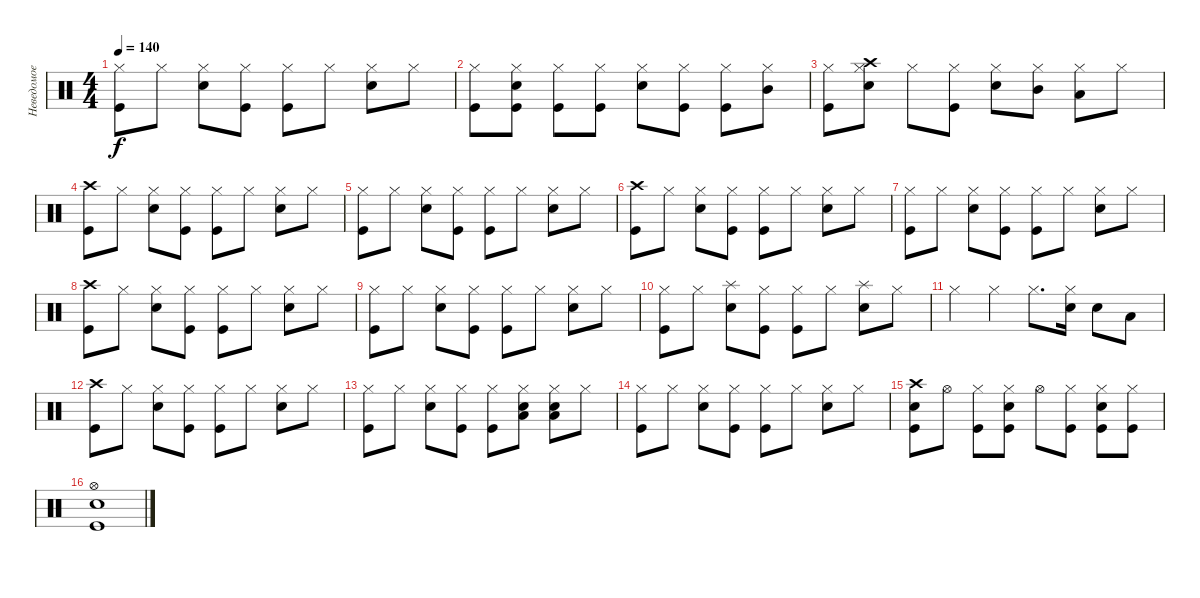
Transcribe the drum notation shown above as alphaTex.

\track ("Неведомое существо" "Неведомое ") {instrument percussion}
\staff {score}
\articulation defaults
\ts (4 4)
\tempo 140
\clef neutral
\ks c
("Hi-Hat (closed)" "Kick (hit)").8{dy f} "Hi-Hat (closed)".8 ("Hi-Hat (closed)" "Snare (hit) 2").8 ("Hi-Hat (closed)" "Kick (hit)").8 ("Hi-Hat (closed)" "Kick (hit)").8 "Hi-Hat (closed)".8 ("Hi-Hat (closed)" "Snare (hit) 2").8 "Hi-Hat (closed)".8 |
("Hi-Hat (closed)" "Kick (hit)").8 ("Hi-Hat (closed)" "Snare (hit) 2" "Kick (hit)").8 ("Hi-Hat (closed)" "Kick (hit)").8 ("Hi-Hat (closed)" "Kick (hit)").8 ("Hi-Hat (closed)" "Snare (hit) 2").8 ("Hi-Hat (closed)" "Kick (hit)").8 ("Hi-Hat (closed)" "Kick (hit)").8 ("Hi-Hat (closed)" "Mid Tom (hit)").8 |
("Hi-Hat (closed)" "Kick (hit)").8 ("Hi-Hat (closed)" "Crash high (hit)" "Snare (hit) 2").8 "Hi-Hat (closed)".8 ("Hi-Hat (closed)" "Kick (hit)").8 ("Hi-Hat (closed)" "Snare (hit) 2").8 ("Hi-Hat (closed)" "Mid Tom (hit)").8 ("Hi-Hat (closed)" "Low Tom (hit)").8 "Hi-Hat (closed)".8 |
("Crash high (hit)" "Kick (hit)").8 "Hi-Hat (closed)".8 ("Hi-Hat (closed)" "Snare (hit) 2").8 ("Hi-Hat (closed)" "Kick (hit)").8 ("Hi-Hat (closed)" "Kick (hit)").8 "Hi-Hat (closed)".8 ("Hi-Hat (closed)" "Snare (hit) 2").8 "Hi-Hat (closed)".8 |
("Hi-Hat (closed)" "Kick (hit)").8 "Hi-Hat (closed)".8 ("Hi-Hat (closed)" "Snare (hit) 2").8 ("Hi-Hat (closed)" "Kick (hit)").8 ("Hi-Hat (closed)" "Kick (hit)").8 "Hi-Hat (closed)".8 ("Hi-Hat (closed)" "Snare (hit) 2").8 "Hi-Hat (closed)".8 |
("Crash high (hit)" "Kick (hit)").8 "Hi-Hat (closed)".8 ("Hi-Hat (closed)" "Snare (hit) 2").8 ("Hi-Hat (closed)" "Kick (hit)").8 ("Hi-Hat (closed)" "Kick (hit)").8 "Hi-Hat (closed)".8 ("Hi-Hat (closed)" "Snare (hit) 2").8 "Hi-Hat (closed)".8 |
("Hi-Hat (closed)" "Kick (hit)").8 "Hi-Hat (closed)".8 ("Hi-Hat (closed)" "Snare (hit) 2").8 ("Hi-Hat (closed)" "Kick (hit)").8 ("Hi-Hat (closed)" "Kick (hit)").8 "Hi-Hat (closed)".8 ("Hi-Hat (closed)" "Snare (hit) 2").8 "Hi-Hat (closed)".8 |
("Crash high (hit)" "Kick (hit)").8 "Hi-Hat (closed)".8 ("Hi-Hat (closed)" "Snare (hit) 2").8 ("Hi-Hat (closed)" "Kick (hit)").8 ("Hi-Hat (closed)" "Kick (hit)").8 "Hi-Hat (closed)".8 ("Hi-Hat (closed)" "Snare (hit) 2").8 "Hi-Hat (closed)".8 |
("Hi-Hat (closed)" "Kick (hit)").8 "Hi-Hat (closed)".8 ("Hi-Hat (closed)" "Snare (hit) 2").8 ("Hi-Hat (closed)" "Kick (hit)").8 ("Hi-Hat (closed)" "Kick (hit)").8 "Hi-Hat (closed)".8 ("Hi-Hat (closed)" "Snare (hit) 2").8 "Hi-Hat (closed)".8 |
("Hi-Hat (closed)" "Kick (hit)").8 "Hi-Hat (closed)".8 ("Splash (hit)" "Snare (hit) 2").8 ("Hi-Hat (closed)" "Kick (hit)").8 ("Hi-Hat (closed)" "Kick (hit)").8 "Hi-Hat (closed)".8 ("Splash (hit)" "Snare (hit) 2").8 "Hi-Hat (closed)".8 |
"Hi-Hat (closed)".4 "Hi-Hat (closed)".4 "Hi-Hat (closed)".8{d} ("Hi-Hat (closed)" "Snare (hit) 2").16 "Snare (hit) 2".8 "Low Tom (hit)".8 |
("Crash high (hit)" "Kick (hit)").8 "Hi-Hat (closed)".8 ("Hi-Hat (closed)" "Snare (hit) 2").8 ("Hi-Hat (closed)" "Kick (hit)").8 ("Hi-Hat (closed)" "Kick (hit)").8 "Hi-Hat (closed)".8 ("Hi-Hat (closed)" "Snare (hit) 2").8 "Hi-Hat (closed)".8 |
("Hi-Hat (closed)" "Kick (hit)").8 "Hi-Hat (closed)".8 ("Hi-Hat (closed)" "Snare (hit) 2").8 ("Hi-Hat (closed)" "Kick (hit)").8 ("Hi-Hat (closed)" "Kick (hit)").8 ("Hi-Hat (closed)" "Snare (hit) 2" "Low Tom (hit)").8 ("Hi-Hat (closed)" "Snare (hit) 2" "Low Floor Tom (hit)").8 "Hi-Hat (closed)".8 |
("Hi-Hat (closed)" "Kick (hit)").8 "Hi-Hat (closed)".8 ("Hi-Hat (closed)" "Snare (hit) 2").8 ("Hi-Hat (closed)" "Kick (hit)").8 ("Hi-Hat (closed)" "Kick (hit)").8 "Hi-Hat (closed)".8 ("Hi-Hat (closed)" "Snare (hit) 2").8 "Hi-Hat (closed)".8 |
("Crash high (hit)" "Snare (hit) 2" "Kick (hit)").8 "Hi-Hat (open)".8 ("Hi-Hat (closed)" "Kick (hit)").8 ("Hi-Hat (closed)" "Snare (hit) 2" "Kick (hit)").8 "Hi-Hat (open)".8 ("Hi-Hat (closed)" "Kick (hit)").8 ("Hi-Hat (closed)" "Snare (hit) 2" "Kick (hit)").8 ("Hi-Hat (closed)" "Kick (hit)").8 |
("Hi-Hat (open)" "Snare (hit) 2" "Kick (hit)").1
